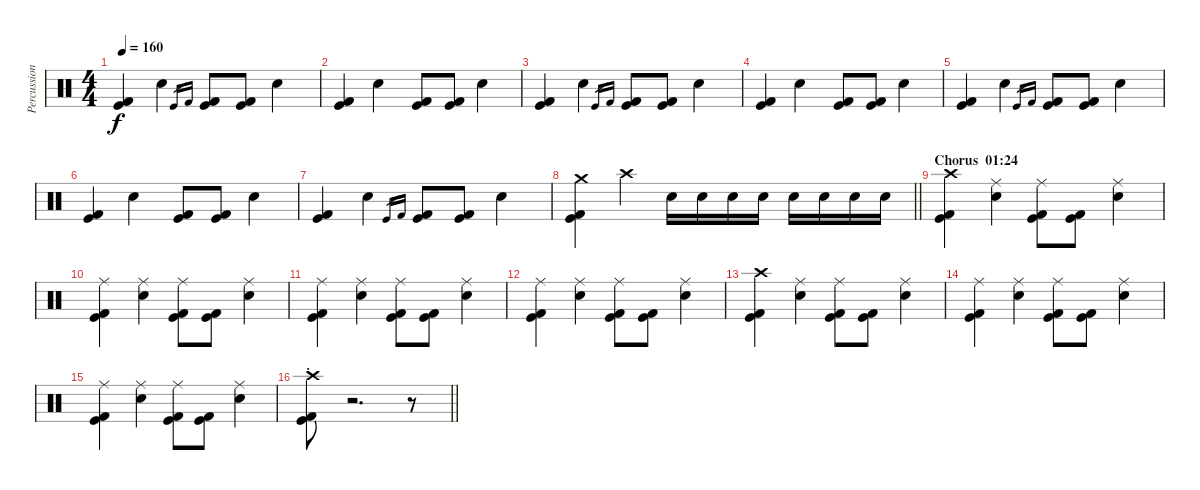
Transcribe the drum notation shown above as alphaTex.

\track ("Percussion" "Percussion") {instrument percussion}
\staff {score}
\articulation defaults
\ts (4 4)
\tempo 160
\clef neutral
\ks c
("Kick (hit)" "Kick (hit) 2").4{dy f} "Electric Snare (hit)".4 "Kick (hit)".16{gr} "Kick (hit) 2".16{gr} ("Kick (hit)" "Kick (hit) 2").8 ("Kick (hit)" "Kick (hit) 2").8 "Electric Snare (hit)".4 |
("Kick (hit)" "Kick (hit) 2").4 "Electric Snare (hit)".4 ("Kick (hit)" "Kick (hit) 2").8 ("Kick (hit)" "Kick (hit) 2").8 "Electric Snare (hit)".4 |
("Kick (hit)" "Kick (hit) 2").4 "Electric Snare (hit)".4 "Kick (hit)".16{gr} "Kick (hit) 2".16{gr} ("Kick (hit)" "Kick (hit) 2").8 ("Kick (hit)" "Kick (hit) 2").8 "Electric Snare (hit)".4 |
("Kick (hit)" "Kick (hit) 2").4 "Electric Snare (hit)".4 ("Kick (hit)" "Kick (hit) 2").8 ("Kick (hit)" "Kick (hit) 2").8 "Electric Snare (hit)".4 |
("Kick (hit)" "Kick (hit) 2").4 "Electric Snare (hit)".4 "Kick (hit)".16{gr} "Kick (hit) 2".16{gr} ("Kick (hit)" "Kick (hit) 2").8 ("Kick (hit)" "Kick (hit) 2").8 "Electric Snare (hit)".4 |
("Kick (hit)" "Kick (hit) 2").4 "Electric Snare (hit)".4 ("Kick (hit)" "Kick (hit) 2").8 ("Kick (hit)" "Kick (hit) 2").8 "Electric Snare (hit)".4 |
("Kick (hit)" "Kick (hit) 2").4 "Electric Snare (hit)".4 "Kick (hit)".16{gr} "Kick (hit) 2".16{gr} ("Kick (hit)" "Kick (hit) 2").8 ("Kick (hit)" "Kick (hit) 2").8 "Electric Snare (hit)".4 |
\barLineRight lightlight
("Crash medium (hit)" "Kick (hit)" "Kick (hit) 2").4 "Crash high (hit)".4 "Electric Snare (hit)".16 "Electric Snare (hit)".16 "Electric Snare (hit)".16 "Electric Snare (hit)".16 "Electric Snare (hit)".16 "Electric Snare (hit)".16 "Electric Snare (hit)".16 "Electric Snare (hit)".16 |
\section ("" "Chorus  01:24")
("Crash high (hit)" "Kick (hit)" "Kick (hit) 2").4 ("Ride (middle)" "Electric Snare (hit)").4 ("Ride (middle)" "Kick (hit)" "Kick (hit) 2").8 ("Kick (hit)" "Kick (hit) 2").8 ("Ride (middle)" "Electric Snare (hit)").4 |
("Ride (middle)" "Kick (hit)" "Kick (hit) 2").4 ("Ride (middle)" "Electric Snare (hit)").4 ("Ride (middle)" "Kick (hit)" "Kick (hit) 2").8 ("Kick (hit)" "Kick (hit) 2").8 ("Ride (middle)" "Electric Snare (hit)").4 |
("Ride (middle)" "Kick (hit)" "Kick (hit) 2").4 ("Ride (middle)" "Electric Snare (hit)").4 ("Ride (middle)" "Kick (hit)" "Kick (hit) 2").8 ("Kick (hit)" "Kick (hit) 2").8 ("Ride (middle)" "Electric Snare (hit)").4 |
("Ride (middle)" "Kick (hit)" "Kick (hit) 2").4 ("Ride (middle)" "Electric Snare (hit)").4 ("Ride (middle)" "Kick (hit)" "Kick (hit) 2").8 ("Kick (hit)" "Kick (hit) 2").8 ("Ride (middle)" "Electric Snare (hit)").4 |
("Crash high (hit)" "Kick (hit)" "Kick (hit) 2").4 ("Ride (middle)" "Electric Snare (hit)").4 ("Ride (middle)" "Kick (hit)" "Kick (hit) 2").8 ("Kick (hit)" "Kick (hit) 2").8 ("Ride (middle)" "Electric Snare (hit)").4 |
("Ride (middle)" "Kick (hit)" "Kick (hit) 2").4 ("Ride (middle)" "Electric Snare (hit)").4 ("Ride (middle)" "Kick (hit)" "Kick (hit) 2").8 ("Kick (hit)" "Kick (hit) 2").8 ("Ride (middle)" "Electric Snare (hit)").4 |
("Ride (middle)" "Kick (hit)" "Kick (hit) 2").4 ("Ride (middle)" "Electric Snare (hit)").4 ("Ride (middle)" "Kick (hit)" "Kick (hit) 2").8 ("Kick (hit)" "Kick (hit) 2").8 ("Ride (middle)" "Electric Snare (hit)").4 |
\barLineRight lightlight
("Crash high (hit)" "Kick (hit)"{st} "Kick (hit) 2").8 r.2{d} r.8
